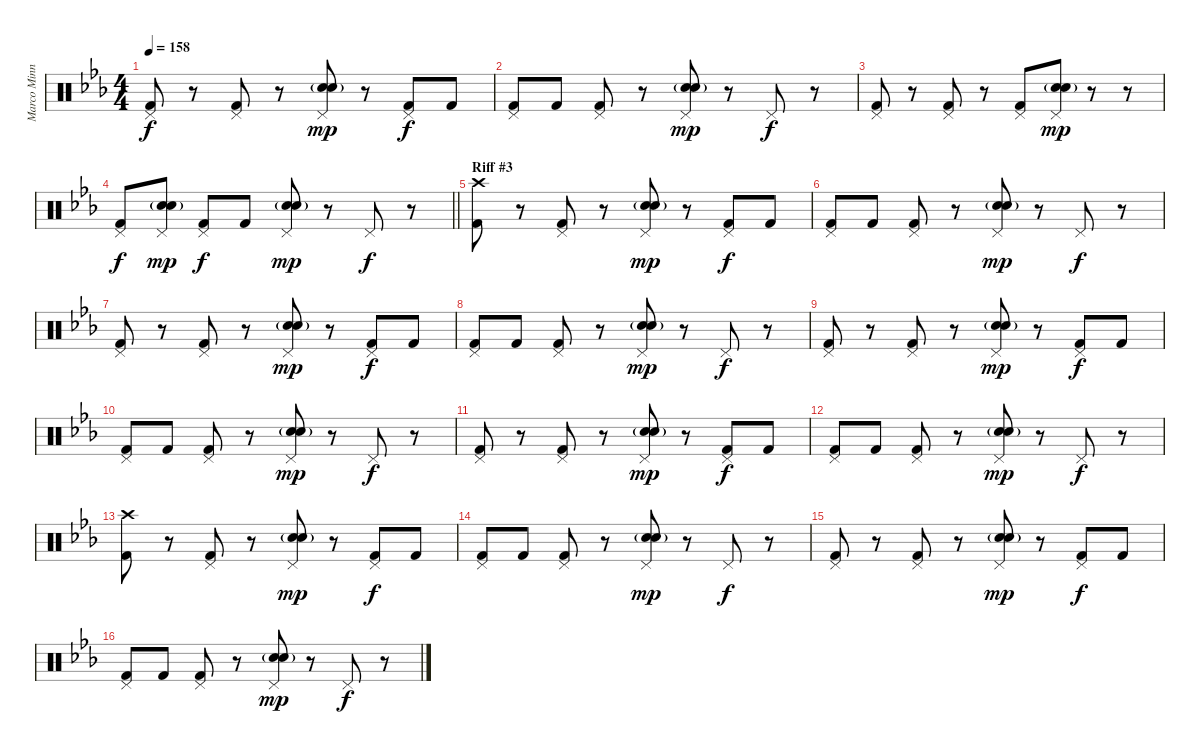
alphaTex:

\track ("Marco Minnemann (Drums)" "Marco Minn") {instrument percussion}
\staff {score}
\articulation defaults
\ts (4 4)
\tempo 158
\clef neutral
\ks eb
("Pedal Hi-Hat (hit)" "Kick (hit) 2").8{dy f} r.8 ("Pedal Hi-Hat (hit)" "Kick (hit) 2").8 r.8 ("Pedal Hi-Hat (hit)" "Snare (hit) 2"{g} "Electric Snare (hit)").8{dy mp} r.8 ("Pedal Hi-Hat (hit)" "Kick (hit) 2").8{dy f} "Kick (hit) 2".8 |
("Pedal Hi-Hat (hit)" "Kick (hit) 2").8 "Kick (hit) 2".8 ("Pedal Hi-Hat (hit)" "Kick (hit) 2").8 r.8 ("Pedal Hi-Hat (hit)" "Snare (hit) 2"{g} "Electric Snare (hit)").8{dy mp} r.8 "Pedal Hi-Hat (hit)".8{dy f} r.8 |
("Pedal Hi-Hat (hit)" "Kick (hit) 2").8 r.8 ("Pedal Hi-Hat (hit)" "Kick (hit) 2").8 r.8 ("Pedal Hi-Hat (hit)" "Kick (hit) 2").8 ("Pedal Hi-Hat (hit)" "Snare (hit) 2"{g} "Electric Snare (hit)").8{dy mp} r.8 r.8 |
\barLineRight lightlight
("Pedal Hi-Hat (hit)" "Kick (hit) 2").8{dy f} ("Pedal Hi-Hat (hit)" "Snare (hit) 2"{g} "Electric Snare (hit)").8{dy mp} ("Pedal Hi-Hat (hit)" "Kick (hit) 2").8{dy f} "Kick (hit) 2".8 ("Pedal Hi-Hat (hit)" "Snare (hit) 2"{g} "Electric Snare (hit)").8{dy mp} r.8 "Pedal Hi-Hat (hit)".8{dy f} r.8 |
\section ("" "Riff #3")
("Crash high (hit)" "Kick (hit) 2").8 r.8 ("Pedal Hi-Hat (hit)" "Kick (hit) 2").8 r.8 ("Pedal Hi-Hat (hit)" "Snare (hit) 2"{g} "Electric Snare (hit)").8{dy mp} r.8 ("Pedal Hi-Hat (hit)" "Kick (hit) 2").8{dy f} "Kick (hit) 2".8 |
("Pedal Hi-Hat (hit)" "Kick (hit) 2").8 "Kick (hit) 2".8 ("Pedal Hi-Hat (hit)" "Kick (hit) 2").8 r.8 ("Pedal Hi-Hat (hit)" "Snare (hit) 2"{g} "Electric Snare (hit)").8{dy mp} r.8 "Pedal Hi-Hat (hit)".8{dy f} r.8 |
("Pedal Hi-Hat (hit)" "Kick (hit) 2").8 r.8 ("Pedal Hi-Hat (hit)" "Kick (hit) 2").8 r.8 ("Pedal Hi-Hat (hit)" "Snare (hit) 2"{g} "Electric Snare (hit)").8{dy mp} r.8 ("Pedal Hi-Hat (hit)" "Kick (hit) 2").8{dy f} "Kick (hit) 2".8 |
("Pedal Hi-Hat (hit)" "Kick (hit) 2").8 "Kick (hit) 2".8 ("Pedal Hi-Hat (hit)" "Kick (hit) 2").8 r.8 ("Pedal Hi-Hat (hit)" "Snare (hit) 2"{g} "Electric Snare (hit)").8{dy mp} r.8 "Pedal Hi-Hat (hit)".8{dy f} r.8 |
("Pedal Hi-Hat (hit)" "Kick (hit) 2").8 r.8 ("Pedal Hi-Hat (hit)" "Kick (hit) 2").8 r.8 ("Pedal Hi-Hat (hit)" "Snare (hit) 2"{g} "Electric Snare (hit)").8{dy mp} r.8 ("Pedal Hi-Hat (hit)" "Kick (hit) 2").8{dy f} "Kick (hit) 2".8 |
("Pedal Hi-Hat (hit)" "Kick (hit) 2").8 "Kick (hit) 2".8 ("Pedal Hi-Hat (hit)" "Kick (hit) 2").8 r.8 ("Pedal Hi-Hat (hit)" "Snare (hit) 2"{g} "Electric Snare (hit)").8{dy mp} r.8 "Pedal Hi-Hat (hit)".8{dy f} r.8 |
("Pedal Hi-Hat (hit)" "Kick (hit) 2").8 r.8 ("Pedal Hi-Hat (hit)" "Kick (hit) 2").8 r.8 ("Pedal Hi-Hat (hit)" "Snare (hit) 2"{g} "Electric Snare (hit)").8{dy mp} r.8 ("Pedal Hi-Hat (hit)" "Kick (hit) 2").8{dy f} "Kick (hit) 2".8 |
("Pedal Hi-Hat (hit)" "Kick (hit) 2").8 "Kick (hit) 2".8 ("Pedal Hi-Hat (hit)" "Kick (hit) 2").8 r.8 ("Pedal Hi-Hat (hit)" "Snare (hit) 2"{g} "Electric Snare (hit)").8{dy mp} r.8 "Pedal Hi-Hat (hit)".8{dy f} r.8 |
("Crash high (hit)" "Kick (hit) 2").8 r.8 ("Pedal Hi-Hat (hit)" "Kick (hit) 2").8 r.8 ("Pedal Hi-Hat (hit)" "Snare (hit) 2"{g} "Electric Snare (hit)").8{dy mp} r.8 ("Pedal Hi-Hat (hit)" "Kick (hit) 2").8{dy f} "Kick (hit) 2".8 |
("Pedal Hi-Hat (hit)" "Kick (hit) 2").8 "Kick (hit) 2".8 ("Pedal Hi-Hat (hit)" "Kick (hit) 2").8 r.8 ("Pedal Hi-Hat (hit)" "Snare (hit) 2"{g} "Electric Snare (hit)").8{dy mp} r.8 "Pedal Hi-Hat (hit)".8{dy f} r.8 |
("Pedal Hi-Hat (hit)" "Kick (hit) 2").8 r.8 ("Pedal Hi-Hat (hit)" "Kick (hit) 2").8 r.8 ("Pedal Hi-Hat (hit)" "Snare (hit) 2"{g} "Electric Snare (hit)").8{dy mp} r.8 ("Pedal Hi-Hat (hit)" "Kick (hit) 2").8{dy f} "Kick (hit) 2".8 |
("Pedal Hi-Hat (hit)" "Kick (hit) 2").8 "Kick (hit) 2".8 ("Pedal Hi-Hat (hit)" "Kick (hit) 2").8 r.8 ("Pedal Hi-Hat (hit)" "Snare (hit) 2"{g} "Electric Snare (hit)").8{dy mp} r.8 "Pedal Hi-Hat (hit)".8{dy f} r.8
